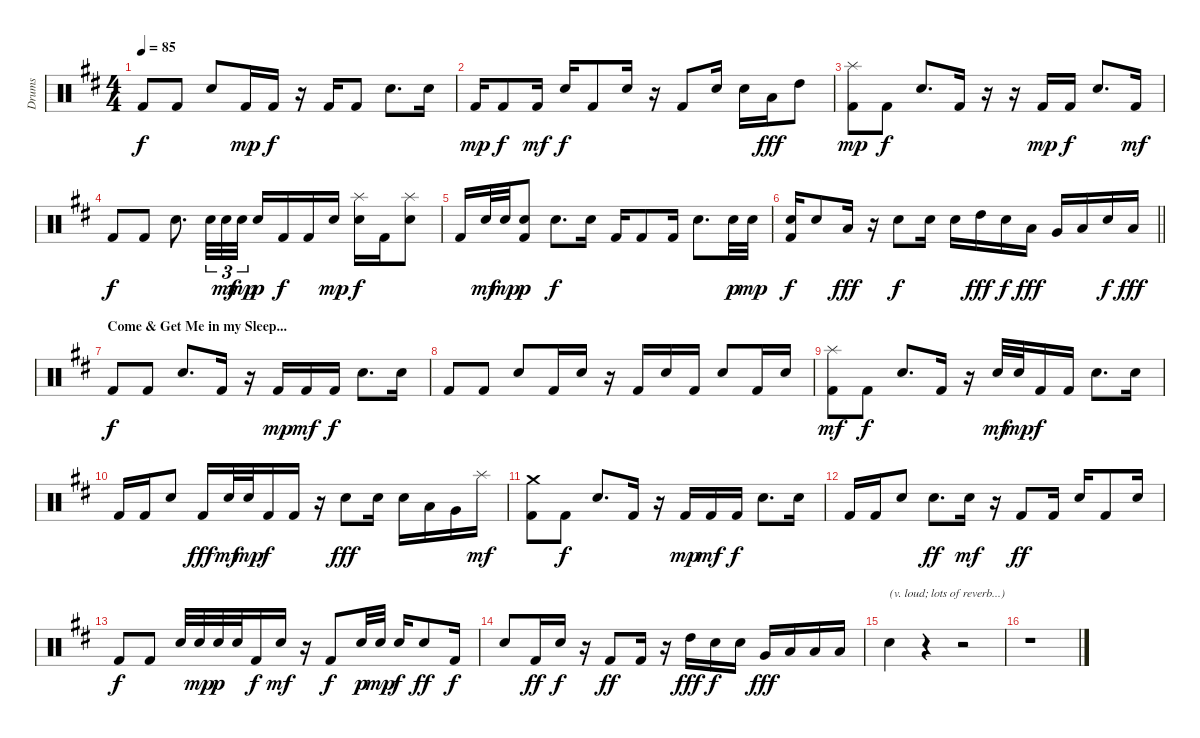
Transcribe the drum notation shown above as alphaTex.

\track ("Drums" "Drums") {instrument percussion}
\staff {score}
\articulation defaults
\ts (4 4)
\tempo 85
\clef neutral
\ks bminor "Kick (hit) 2".8{dy f} "Kick (hit) 2".8 "Electric Snare (hit)".8 "Kick (hit) 2".16{dy mp} "Kick (hit) 2".16{dy f}
r.16 "Kick (hit) 2".16 "Kick (hit) 2".8 "Electric Snare (hit)".8{d} "Electric Snare (hit)".16 |
"Kick (hit) 2".16{dy mp} "Kick (hit) 2".8{dy f} "Kick (hit) 2".16{dy mf} "Electric Snare (hit)".16{dy f} "Kick (hit) 2".8 "Electric Snare (hit)".16 r.16 "Kick (hit) 2".8 "Electric Snare (hit)".16 "Electric Snare (hit)".16 "Low Tom (hit)".16{dy fff} "High Tom (hit)".8 |
("Splash (hit)" "Kick (hit) 2").8{dy mp} "Kick (hit) 2".8{dy f} "Electric Snare (hit)".8{d} "Kick (hit) 2".16 r.16 r.16 "Kick (hit) 2".16{dy mp} "Kick (hit) 2".16{dy f} "Electric Snare (hit)".8{d} "Kick (hit) 2".16{dy mf} |
"Kick (hit) 2".8{dy f} "Kick (hit) 2".8 "Electric Snare (hit)".8{d} "Electric Snare (hit)".32{tu (3 2)} "Electric Snare (hit)".32{tu (3 2) dy mf} "Electric Snare (hit)".32{tu (3 2) dy mp} "Electric Snare (hit)".16{dy p} "Kick (hit) 2".16{dy f} "Kick (hit) 2".16 "Electric Snare (hit)".16{dy mp} ("Splash (hit)" "Electric Snare (hit)").16{dy f} "Kick (hit) 2".16 ("Splash (hit)" "Electric Snare (hit)").8 |
"Kick (hit) 2".16 "Electric Snare (hit)".32{dy mf} "Electric Snare (hit)".32{dy mp} ("Electric Snare (hit)" "Kick (hit) 2").8{dy p} "Electric Snare (hit)".8{d dy f} "Electric Snare (hit)".16 "Kick (hit) 2".16 "Kick (hit) 2".8 "Kick (hit) 2".16 "Electric Snare (hit)".8{d} "Electric Snare (hit)".32{dy p} "Electric Snare (hit)".32{dy mp} |
\barLineRight lightlight
("Electric Snare (hit)" "Kick (hit) 2").16{dy f} "Electric Snare (hit)".8 "Low Tom (hit)".16{dy fff} r.16 "Electric Snare (hit)".8{dy f} "Electric Snare (hit)".16 "Electric Snare (hit)".16 "High Tom (hit)".16{dy fff} "Electric Snare (hit)".16{dy f} "Low Tom (hit)".16{dy fff} "Very Low Tom (hit)".16 "Low Tom (hit)".16 "Electric Snare (hit)".16{dy f} "Low Tom (hit)".16{dy fff} |
\section ("" "Come & Get Me in my Sleep...")
"Kick (hit) 2".8{dy f} "Kick (hit) 2".8 "Electric Snare (hit)".8{d} "Kick (hit) 2".16 r.16 "Kick (hit) 2".16{dy mp} "Kick (hit) 2".16{dy mf} "Kick (hit) 2".16{dy f} "Electric Snare (hit)".8{d} "Electric Snare (hit)".16 |
"Kick (hit) 2".8 "Kick (hit) 2".8 "Electric Snare (hit)".8 "Kick (hit) 2".16 "Electric Snare (hit)".16 r.16 "Kick (hit) 2".16 "Electric Snare (hit)".16 "Kick (hit) 2".16 "Electric Snare (hit)".8 "Kick (hit) 2".16 "Electric Snare (hit)".16 |
("Splash (hit)" "Kick (hit) 2").8{dy mf} "Kick (hit) 2".8{dy f} "Electric Snare (hit)".8{d} "Kick (hit) 2".16 r.16 "Electric Snare (hit)".32{dy mf} "Electric Snare (hit)".32{dy mp} "Kick (hit) 2".16{dy f} "Kick (hit) 2".16 "Electric Snare (hit)".8{d} "Electric Snare (hit)".16 |
"Kick (hit) 2".16 "Kick (hit) 2".16 "Electric Snare (hit)".8 "Kick (hit) 2".16{dy fff} "Electric Snare (hit)".32{dy mf} "Electric Snare (hit)".32{dy mp} "Kick (hit) 2".16{dy f} "Kick (hit) 2".16 r.16 "Electric Snare (hit)".8{dy fff} "Electric Snare (hit)".16 "Electric Snare (hit)".16 "Low Tom (hit)".16 "Very Low Tom (hit)".16 "Splash (hit)".16{dy mf} |
("Crash medium (hit)" "Kick (hit) 2").8 "Kick (hit) 2".8{dy f} "Electric Snare (hit)".8{d} "Kick (hit) 2".16 r.16 "Kick (hit) 2".16{dy mp} "Kick (hit) 2".16{dy mf} "Kick (hit) 2".16{dy f} "Electric Snare (hit)".8{d} "Electric Snare (hit)".16 |
"Kick (hit) 2".16 "Kick (hit) 2".16 "Electric Snare (hit)".8 "Electric Snare (hit)".8{d dy ff} "Electric Snare (hit)".16{dy mf} r.16 "Kick (hit) 2".8{dy ff} "Kick (hit) 2".16 "Electric Snare (hit)".16 "Kick (hit) 2".8 "Electric Snare (hit)".16 |
"Kick (hit) 2".8{dy f} "Kick (hit) 2".8 "Electric Snare (hit)".32 "Electric Snare (hit)".32{dy mp} "Electric Snare (hit)".32{dy p} "Electric Snare (hit)".32 "Kick (hit) 2".16{dy f} "Electric Snare (hit)".16{dy mf} r.16 "Kick (hit) 2".8{dy f} "Electric Snare (hit)".32{dy p} "Electric Snare (hit)".32{dy mp} "Electric Snare (hit)".16{dy f} "Electric Snare (hit)".8{dy ff} "Kick (hit) 2".16{dy f} |
"Electric Snare (hit)".8 "Kick (hit) 2".16{dy ff} "Electric Snare (hit)".16{dy f} r.16 "Kick (hit) 2".8{dy ff} "Kick (hit) 2".16 r.16 "High Tom (hit)".16{dy fff} "Electric Snare (hit)".16{dy f} "Electric Snare (hit)".16 "Very Low Tom (hit)".16{dy fff} "Low Tom (hit)".16 "Low Tom (hit)".16 "Low Floor Tom (hit)".16 |
"Electric Snare (hit)".4{txt "(v. loud; lots of reverb...)" volume 13} r.4 r.2 |
r.1
